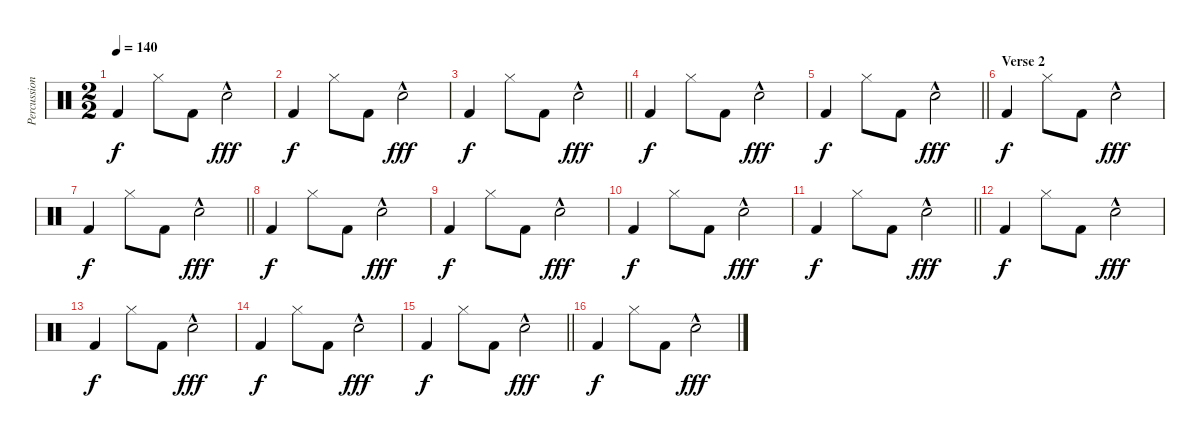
\track ("Percussion" "Percussion") {instrument percussion}
\staff {score}
\articulation defaults
\ts (2 2)
\tempo 140
\clef neutral
\ks c "Kick (hit) 2".4{dy f} "Hi-Hat (closed)".8 "Kick (hit) 2".8 "Hand Clap (hit)"{hac}.2{dy fff}
|
"Kick (hit) 2".4{dy f} "Hi-Hat (closed)".8 "Kick (hit) 2".8 "Hand Clap (hit)"{hac}.2{dy fff} |
\barLineRight lightlight "Kick (hit) 2".4{dy f} "Hi-Hat (closed)".8 "Kick (hit) 2".8 "Hand Clap (hit)"{hac}.2{dy fff}
|
"Kick (hit) 2".4{dy f} "Hi-Hat (closed)".8 "Kick (hit) 2".8 "Hand Clap (hit)"{hac}.2{dy fff} |
\barLineRight lightlight "Kick (hit) 2".4{dy f} "Hi-Hat (closed)".8 "Kick (hit) 2".8 "Hand Clap (hit)"{hac}.2{dy fff}
|
\section ("" "Verse 2")
"Kick (hit) 2".4{dy f} "Hi-Hat (closed)".8 "Kick (hit) 2".8 "Hand Clap (hit)"{hac}.2{dy fff} |
\barLineRight lightlight "Kick (hit) 2".4{dy f} "Hi-Hat (closed)".8 "Kick (hit) 2".8 "Hand Clap (hit)"{hac}.2{dy fff}
|
"Kick (hit) 2".4{dy f} "Hi-Hat (closed)".8 "Kick (hit) 2".8 "Hand Clap (hit)"{hac}.2{dy fff} |
"Kick (hit) 2".4{dy f} "Hi-Hat (closed)".8 "Kick (hit) 2".8 "Hand Clap (hit)"{hac}.2{dy fff} |
"Kick (hit) 2".4{dy f} "Hi-Hat (closed)".8 "Kick (hit) 2".8 "Hand Clap (hit)"{hac}.2{dy fff} |
\barLineRight lightlight "Kick (hit) 2".4{dy f} "Hi-Hat (closed)".8 "Kick (hit) 2".8 "Hand Clap (hit)"{hac}.2{dy fff}
|
"Kick (hit) 2".4{dy f} "Hi-Hat (closed)".8 "Kick (hit) 2".8 "Hand Clap (hit)"{hac}.2{dy fff} |
"Kick (hit) 2".4{dy f} "Hi-Hat (closed)".8 "Kick (hit) 2".8 "Hand Clap (hit)"{hac}.2{dy fff} |
"Kick (hit) 2".4{dy f} "Hi-Hat (closed)".8 "Kick (hit) 2".8 "Hand Clap (hit)"{hac}.2{dy fff} |
\barLineRight lightlight "Kick (hit) 2".4{dy f} "Hi-Hat (closed)".8 "Kick (hit) 2".8 "Hand Clap (hit)"{hac}.2{dy fff}
|
"Kick (hit) 2".4{dy f} "Hi-Hat (closed)".8 "Kick (hit) 2".8 "Hand Clap (hit)"{hac}.2{dy fff}
